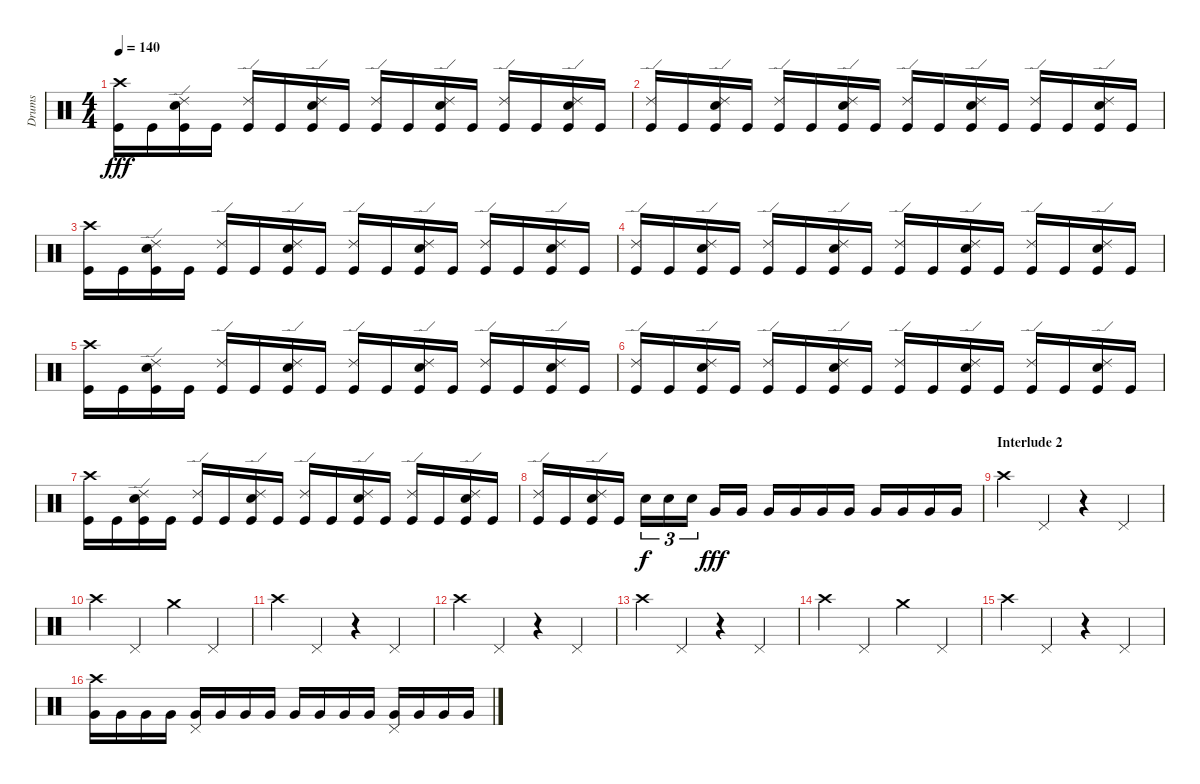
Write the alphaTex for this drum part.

\track ("Drums" "Drums") {instrument percussion}
\staff {score}
\articulation defaults
\ts (4 4)
\tempo 140
\clef neutral
\ks c
("Crash high (hit)" "Kick (hit)").16{dy fff} "Kick (hit)".16 ("Ride (edge) 2" "Snare (hit) 2" "Kick (hit)").16 "Kick (hit)".16 ("Ride (edge) 2" "Kick (hit)").16 "Kick (hit)".16 ("Ride (edge) 2" "Snare (hit) 2" "Kick (hit)").16 "Kick (hit)".16 ("Ride (edge) 2" "Kick (hit)").16 "Kick (hit)".16 ("Ride (edge) 2" "Snare (hit) 2" "Kick (hit)").16 "Kick (hit)".16 ("Ride (edge) 2" "Kick (hit)").16 "Kick (hit)".16 ("Ride (edge) 2" "Snare (hit) 2" "Kick (hit)").16 "Kick (hit)".16 |
("Ride (edge) 2" "Kick (hit)").16 "Kick (hit)".16 ("Ride (edge) 2" "Snare (hit) 2" "Kick (hit)").16 "Kick (hit)".16 ("Ride (edge) 2" "Kick (hit)").16 "Kick (hit)".16 ("Ride (edge) 2" "Snare (hit) 2" "Kick (hit)").16 "Kick (hit)".16 ("Ride (edge) 2" "Kick (hit)").16 "Kick (hit)".16 ("Ride (edge) 2" "Snare (hit) 2" "Kick (hit)").16 "Kick (hit)".16 ("Ride (edge) 2" "Kick (hit)").16 "Kick (hit)".16 ("Ride (edge) 2" "Snare (hit) 2" "Kick (hit)").16 "Kick (hit)".16 |
("Crash high (hit)" "Kick (hit)").16 "Kick (hit)".16 ("Ride (edge) 2" "Snare (hit) 2" "Kick (hit)").16 "Kick (hit)".16 ("Ride (edge) 2" "Kick (hit)").16 "Kick (hit)".16 ("Ride (edge) 2" "Snare (hit) 2" "Kick (hit)").16 "Kick (hit)".16 ("Ride (edge) 2" "Kick (hit)").16 "Kick (hit)".16 ("Ride (edge) 2" "Snare (hit) 2" "Kick (hit)").16 "Kick (hit)".16 ("Ride (edge) 2" "Kick (hit)").16 "Kick (hit)".16 ("Ride (edge) 2" "Snare (hit) 2" "Kick (hit)").16 "Kick (hit)".16 |
("Ride (edge) 2" "Kick (hit)").16 "Kick (hit)".16 ("Ride (edge) 2" "Snare (hit) 2" "Kick (hit)").16 "Kick (hit)".16 ("Ride (edge) 2" "Kick (hit)").16 "Kick (hit)".16 ("Ride (edge) 2" "Snare (hit) 2" "Kick (hit)").16 "Kick (hit)".16 ("Ride (edge) 2" "Kick (hit)").16 "Kick (hit)".16 ("Ride (edge) 2" "Snare (hit) 2" "Kick (hit)").16 "Kick (hit)".16 ("Ride (edge) 2" "Kick (hit)").16 "Kick (hit)".16 ("Ride (edge) 2" "Snare (hit) 2" "Kick (hit)").16 "Kick (hit)".16 |
("Crash high (hit)" "Kick (hit)").16 "Kick (hit)".16 ("Ride (edge) 2" "Snare (hit) 2" "Kick (hit)").16 "Kick (hit)".16 ("Ride (edge) 2" "Kick (hit)").16 "Kick (hit)".16 ("Ride (edge) 2" "Snare (hit) 2" "Kick (hit)").16 "Kick (hit)".16 ("Ride (edge) 2" "Kick (hit)").16 "Kick (hit)".16 ("Ride (edge) 2" "Snare (hit) 2" "Kick (hit)").16 "Kick (hit)".16 ("Ride (edge) 2" "Kick (hit)").16 "Kick (hit)".16 ("Ride (edge) 2" "Snare (hit) 2" "Kick (hit)").16 "Kick (hit)".16 |
("Ride (edge) 2" "Kick (hit)").16 "Kick (hit)".16 ("Ride (edge) 2" "Snare (hit) 2" "Kick (hit)").16 "Kick (hit)".16 ("Ride (edge) 2" "Kick (hit)").16 "Kick (hit)".16 ("Ride (edge) 2" "Snare (hit) 2" "Kick (hit)").16 "Kick (hit)".16 ("Ride (edge) 2" "Kick (hit)").16 "Kick (hit)".16 ("Ride (edge) 2" "Snare (hit) 2" "Kick (hit)").16 "Kick (hit)".16 ("Ride (edge) 2" "Kick (hit)").16 "Kick (hit)".16 ("Ride (edge) 2" "Snare (hit) 2" "Kick (hit)").16 "Kick (hit)".16 |
("Crash high (hit)" "Kick (hit)").16 "Kick (hit)".16 ("Ride (edge) 2" "Snare (hit) 2" "Kick (hit)").16 "Kick (hit)".16 ("Ride (edge) 2" "Kick (hit)").16 "Kick (hit)".16 ("Ride (edge) 2" "Snare (hit) 2" "Kick (hit)").16 "Kick (hit)".16 ("Ride (edge) 2" "Kick (hit)").16 "Kick (hit)".16 ("Ride (edge) 2" "Snare (hit) 2" "Kick (hit)").16 "Kick (hit)".16 ("Ride (edge) 2" "Kick (hit)").16 "Kick (hit)".16 ("Ride (edge) 2" "Snare (hit) 2" "Kick (hit)").16 "Kick (hit)".16 |
("Ride (edge) 2" "Kick (hit)").16 "Kick (hit)".16 ("Ride (edge) 2" "Snare (hit) 2" "Kick (hit)").16 "Kick (hit)".16 "Snare (hit) 2".16{tu (3 2) dy f} "Snare (hit) 2".16{tu (3 2)} "Snare (hit) 2".16{tu (3 2)} "Very Low Tom (hit)".16{dy fff} "Very Low Tom (hit)".16 "Very Low Tom (hit)".16 "Very Low Tom (hit)".16 "Very Low Tom (hit)".16 "Very Low Tom (hit)".16 "Very Low Tom (hit)".16 "Very Low Tom (hit)".16 "Very Low Tom (hit)".16 "Very Low Tom (hit)".16 |
\section ("" "Interlude 2")
"Crash high (hit)".4 "Pedal Hi-Hat (hit)".4 r.4 "Pedal Hi-Hat (hit)".4 |
"Crash high (hit)".4 "Pedal Hi-Hat (hit)".4 "Crash medium (hit)".4 "Pedal Hi-Hat (hit)".4 |
"Crash high (hit)".4 "Pedal Hi-Hat (hit)".4 r.4 "Pedal Hi-Hat (hit)".4 |
"Crash high (hit)".4 "Pedal Hi-Hat (hit)".4 r.4 "Pedal Hi-Hat (hit)".4 |
"Crash high (hit)".4 "Pedal Hi-Hat (hit)".4 r.4 "Pedal Hi-Hat (hit)".4 |
"Crash high (hit)".4 "Pedal Hi-Hat (hit)".4 "Crash medium (hit)".4 "Pedal Hi-Hat (hit)".4 |
"Crash high (hit)".4 "Pedal Hi-Hat (hit)".4 r.4 "Pedal Hi-Hat (hit)".4 |
("Crash high (hit)" "Very Low Tom (hit)").16 "Very Low Tom (hit)".16 "Very Low Tom (hit)".16 "Very Low Tom (hit)".16 ("Pedal Hi-Hat (hit)" "Very Low Tom (hit)").16 "Very Low Tom (hit)".16 "Very Low Tom (hit)".16 "Very Low Tom (hit)".16 "Very Low Tom (hit)".16 "Very Low Tom (hit)".16 "Very Low Tom (hit)".16 "Very Low Tom (hit)".16 ("Pedal Hi-Hat (hit)" "Very Low Tom (hit)").16 "Very Low Tom (hit)".16 "Very Low Tom (hit)".16 "Very Low Tom (hit)".16
